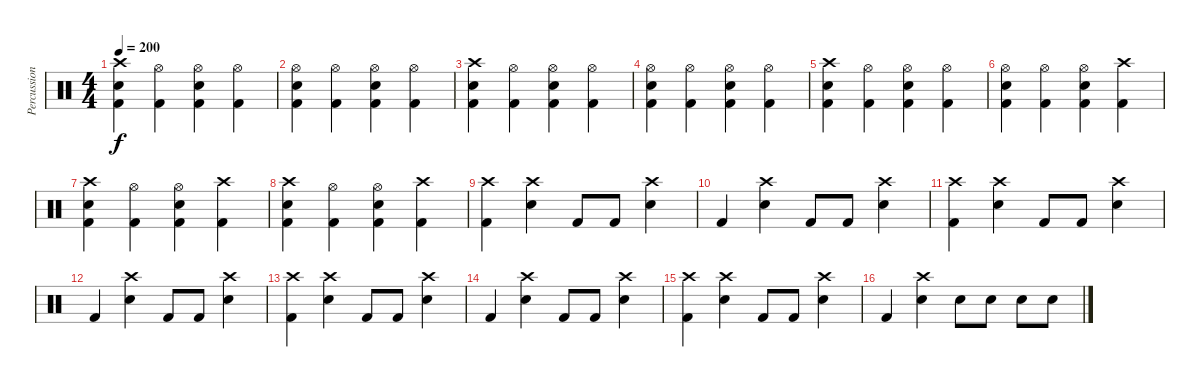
\track ("Percussion" "Percussion") {instrument percussion}
\staff {score}
\articulation defaults
\ts (4 4)
\tempo 200
\clef neutral
\ks c
("Crash high (hit)" "Snare (hit) 2" "Kick (hit) 2").4{dy f} ("Hi-Hat (open)" "Kick (hit) 2").4 ("Hi-Hat (open)" "Snare (hit) 2" "Kick (hit) 2").4 ("Hi-Hat (open)" "Kick (hit) 2").4 |
("Hi-Hat (open)" "Snare (hit) 2" "Kick (hit) 2").4 ("Hi-Hat (open)" "Kick (hit) 2").4 ("Hi-Hat (open)" "Snare (hit) 2" "Kick (hit) 2").4 ("Hi-Hat (open)" "Kick (hit) 2").4 |
("Crash high (hit)" "Snare (hit) 2" "Kick (hit) 2").4 ("Hi-Hat (open)" "Kick (hit) 2").4 ("Hi-Hat (open)" "Snare (hit) 2" "Kick (hit) 2").4 ("Hi-Hat (open)" "Kick (hit) 2").4 |
("Hi-Hat (open)" "Snare (hit) 2" "Kick (hit) 2").4 ("Hi-Hat (open)" "Kick (hit) 2").4 ("Hi-Hat (open)" "Snare (hit) 2" "Kick (hit) 2").4 ("Hi-Hat (open)" "Kick (hit) 2").4 |
("Crash high (hit)" "Snare (hit) 2" "Kick (hit) 2").4 ("Hi-Hat (open)" "Kick (hit) 2").4 ("Hi-Hat (open)" "Snare (hit) 2" "Kick (hit) 2").4 ("Hi-Hat (open)" "Kick (hit) 2").4 |
("Hi-Hat (open)" "Snare (hit) 2" "Kick (hit) 2").4 ("Hi-Hat (open)" "Kick (hit) 2").4 ("Hi-Hat (open)" "Snare (hit) 2" "Kick (hit) 2").4 ("Crash high (hit)" "Kick (hit) 2").4 |
("Crash high (hit)" "Snare (hit) 2" "Kick (hit) 2").4 ("Hi-Hat (open)" "Kick (hit) 2").4 ("Hi-Hat (open)" "Snare (hit) 2" "Kick (hit) 2").4 ("Crash high (hit)" "Kick (hit) 2").4 |
("Crash high (hit)" "Snare (hit) 2" "Kick (hit) 2").4 ("Hi-Hat (open)" "Kick (hit) 2").4 ("Hi-Hat (open)" "Snare (hit) 2" "Kick (hit) 2").4 ("Crash high (hit)" "Kick (hit) 2").4 |
("Crash high (hit)" "Kick (hit) 2").4 ("Crash high (hit)" "Snare (hit) 2").4 "Kick (hit) 2".8 "Kick (hit) 2".8 ("Crash high (hit)" "Snare (hit) 2").4 |
"Kick (hit) 2".4 ("Crash high (hit)" "Snare (hit) 2").4 "Kick (hit) 2".8 "Kick (hit) 2".8 ("Crash high (hit)" "Snare (hit) 2").4 |
("Crash high (hit)" "Kick (hit) 2").4 ("Crash high (hit)" "Snare (hit) 2").4 "Kick (hit) 2".8 "Kick (hit) 2".8 ("Crash high (hit)" "Snare (hit) 2").4 |
"Kick (hit) 2".4 ("Crash high (hit)" "Snare (hit) 2").4 "Kick (hit) 2".8 "Kick (hit) 2".8 ("Crash high (hit)" "Snare (hit) 2").4 |
("Crash high (hit)" "Kick (hit) 2").4 ("Crash high (hit)" "Snare (hit) 2").4 "Kick (hit) 2".8 "Kick (hit) 2".8 ("Crash high (hit)" "Snare (hit) 2").4 |
"Kick (hit) 2".4 ("Crash high (hit)" "Snare (hit) 2").4 "Kick (hit) 2".8 "Kick (hit) 2".8 ("Crash high (hit)" "Snare (hit) 2").4 |
("Crash high (hit)" "Kick (hit) 2").4 ("Crash high (hit)" "Snare (hit) 2").4 "Kick (hit) 2".8 "Kick (hit) 2".8 ("Crash high (hit)" "Snare (hit) 2").4 |
"Kick (hit) 2".4 ("Crash high (hit)" "Snare (hit) 2").4 "Snare (hit) 2".8 "Snare (hit) 2".8 "Snare (hit) 2".8 "Snare (hit) 2".8
